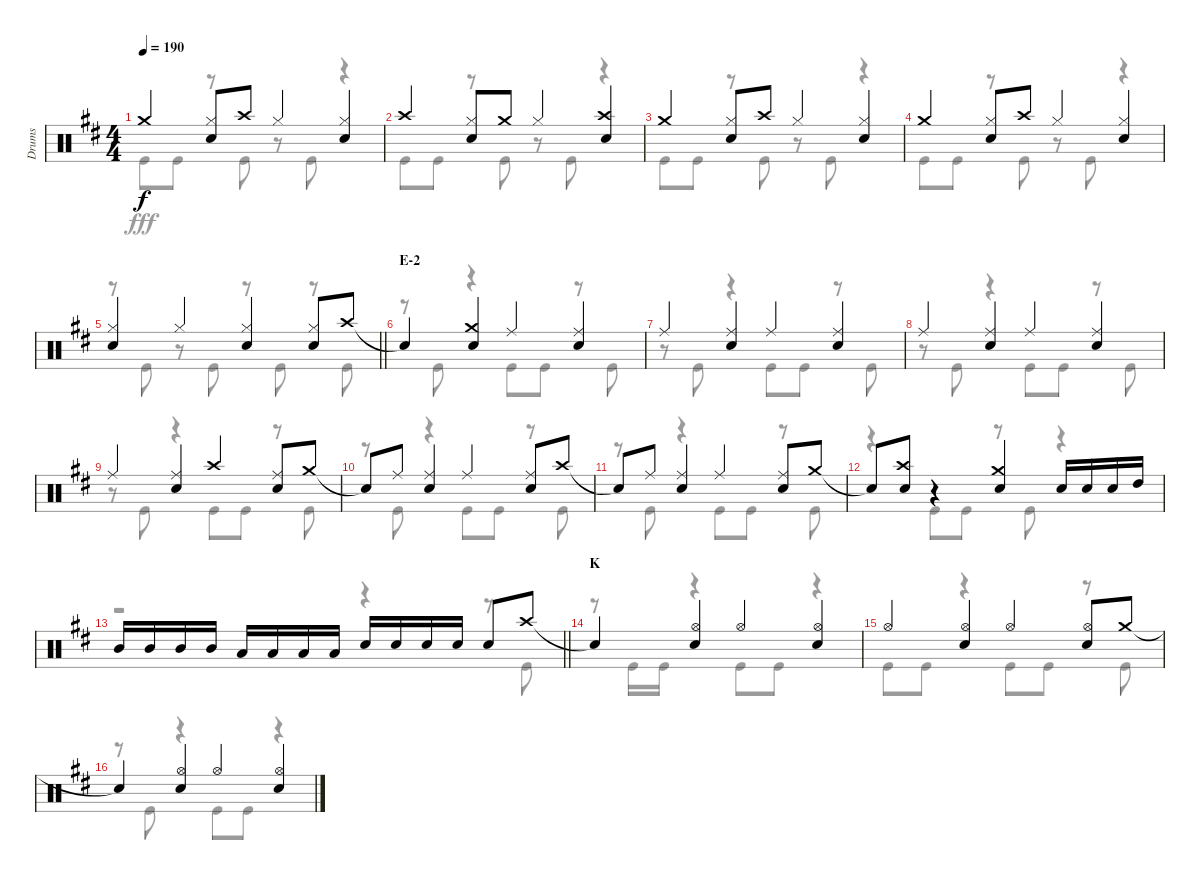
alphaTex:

\track ("Drums" "Drums") {instrument percussion}
\staff {score}
\articulation defaults
\voice
\ts (4 4)
\tempo 190
\clef neutral
\ks d "Crash medium (hit)".4{dy f}
("Hi-Hat (closed)" "Snare (hit) 2").8 "Crash high (hit)".8 "Hi-Hat (closed)".4 ("Hi-Hat (closed)" "Snare (hit) 2").4 |
"Crash high (hit)".4 ("Hi-Hat (closed)" "Snare (hit) 2").8 "Crash medium (hit)".8 "Hi-Hat (closed)".4 ("Crash high (hit)" "Snare (hit) 2").4 |
"Crash medium (hit)".4 ("Hi-Hat (closed)" "Snare (hit) 2").8 "Crash high (hit)".8 "Hi-Hat (closed)".4 ("Hi-Hat (closed)" "Snare (hit) 2").4 |
"Crash medium (hit)".4 ("Hi-Hat (closed)" "Snare (hit) 2").8 "Crash high (hit)".8 "Hi-Hat (closed)".4 ("Hi-Hat (closed)" "Snare (hit) 2").4 |
\barLineRight lightlight
("Hi-Hat (closed)" "Snare (hit) 2").4 "Hi-Hat (closed)".4 ("Hi-Hat (closed)" "Snare (hit) 2").4 ("Hi-Hat (closed)" "Snare (hit) 2").8 "Crash high (hit)".8 |
\section ("" "E-2")
"Snare (hit)"{t}.4 ("Crash medium (hit)" "Snare (hit) 2").4 "Ride (middle)".4 ("Ride (middle)" "Snare (hit) 2").4 |
"Ride (middle)".4 ("Ride (middle)" "Snare (hit) 2").4 "Ride (middle)".4 ("Ride (middle)" "Snare (hit) 2").4 |
"Ride (middle)".4 ("Ride (middle)" "Snare (hit) 2").4 "Ride (middle)".4 ("Ride (middle)" "Snare (hit) 2").4 |
"Ride (middle)".4 ("Ride (middle)" "Snare (hit) 2").4 "Crash high (hit)".4 ("Ride (middle)" "Snare (hit) 2").8 "Crash medium (hit)".8 |
"Snare (hit)"{t}.8 "Ride (middle)".8 ("Ride (middle)" "Snare (hit) 2").4 "Ride (middle)".4 ("Ride (middle)" "Snare (hit) 2").8 "Crash high (hit)".8 |
"Snare (hit)"{t}.8 "Ride (middle)".8 ("Ride (middle)" "Snare (hit) 2").4 "Ride (middle)".4 ("Ride (middle)" "Snare (hit) 2").8 "Crash medium (hit)".8 |
"Snare (hit)"{t}.8 ("Crash high (hit)" "Snare (hit) 2").8 r.4 ("Crash medium (hit)" "Snare (hit) 2").4 "Snare (hit) 2".16 "Snare (hit) 2".16 "Snare (hit) 2".16 "High Tom (hit)".16 |
\barLineRight lightlight "Mid Tom (hit)".16 "Mid Tom (hit)".16 "Mid Tom (hit)".16 "Mid Tom (hit)".16 "Low Tom (hit)".16 "Low Tom (hit)".16 "Low Tom (hit)".16 "Low Tom (hit)".16 "Snare (hit) 2".16 "Snare (hit) 2".16 "Snare (hit) 2".16 "Snare (hit) 2".16 "Snare (hit) 2".8 "Crash high (hit)".8
|
\section ("" "K")
"Snare (hit)"{t}.4 ("Hi-Hat (open)" "Snare (hit) 2").4 "Hi-Hat (open)".4 ("Hi-Hat (open)" "Snare (hit) 2").4 |
"Hi-Hat (open)".4 ("Hi-Hat (open)" "Snare (hit) 2").4 "Hi-Hat (open)".4 ("Hi-Hat (open)" "Snare (hit) 2").8 "Crash medium (hit)".8 |
"Snare (hit)"{t}.4 ("Hi-Hat (open)" "Snare (hit) 2").4 "Hi-Hat (open)".4 ("Hi-Hat (open)" "Snare (hit) 2").4
\voice
\clef neutral
\ottava regular
\simile none
\ks d "Kick (hit)".8{dy fff} "Kick (hit)".8
r.8 "Kick (hit)".8 r.8 "Kick (hit)".8 r.4 |
"Kick (hit)".8 "Kick (hit)".8 r.8 "Kick (hit)".8 r.8 "Kick (hit)".8 r.4 |
"Kick (hit)".8 "Kick (hit)".8 r.8 "Kick (hit)".8 r.8 "Kick (hit)".8 r.4 |
"Kick (hit)".8 "Kick (hit)".8 r.8 "Kick (hit)".8 r.8 "Kick (hit)".8 r.4 |
\barLineRight lightlight
r.8 "Kick (hit)".8 r.8 "Kick (hit)".8 r.8 "Kick (hit)".8 r.8 "Kick (hit)".8 |
r.8 "Kick (hit)".8 r.4 "Kick (hit)".8 "Kick (hit)".8 r.8 "Kick (hit)".8 |
r.8 "Kick (hit)".8 r.4 "Kick (hit)".8 "Kick (hit)".8 r.8 "Kick (hit)".8 |
r.8 "Kick (hit)".8 r.4 "Kick (hit)".8 "Kick (hit)".8 r.8 "Kick (hit)".8 |
r.8 "Kick (hit)".8 r.4 "Kick (hit)".8 "Kick (hit)".8 r.8 "Kick (hit)".8 |
r.8 "Kick (hit)".8 r.4 "Kick (hit)".8 "Kick (hit)".8 r.8 "Kick (hit)".8 |
r.8 "Kick (hit)".8 r.4 "Kick (hit)".8 "Kick (hit)".8 r.8 "Kick (hit)".8 |
r.4 "Kick (hit)".8 "Kick (hit)".8 r.8 "Kick (hit)".8 r.4 |
\barLineRight lightlight
r.2 r.4 r.8 "Kick (hit)".8 |
r.8 "Kick (hit)".16 "Kick (hit)".16 r.4 "Kick (hit)".8 "Kick (hit)".8 r.4 |
"Kick (hit)".8 "Kick (hit)".8 r.4 "Kick (hit)".8 "Kick (hit)".8 r.8 "Kick (hit)".8 |
r.8 "Kick (hit)".8 r.4 "Kick (hit)".8 "Kick (hit)".8 r.4
